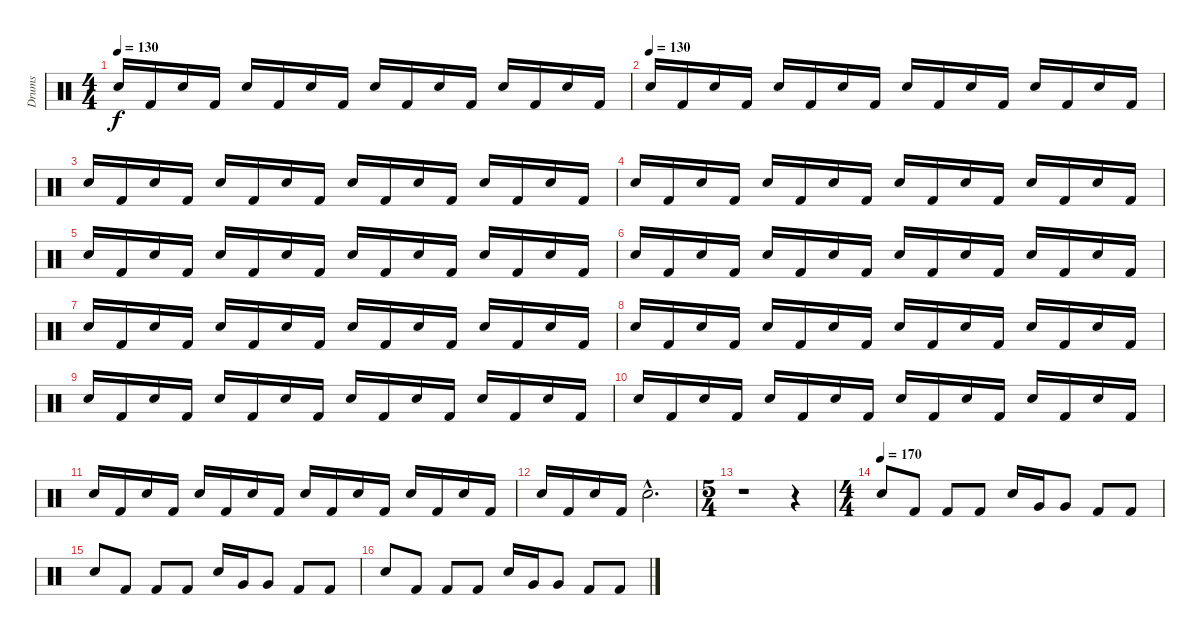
\track ("Drums" "Drums") {instrument percussion}
\staff {score}
\articulation defaults
\ts (4 4)
\tempo 130
\clef neutral
\ks c "Snare (hit) 2".16{dy f} "Kick (hit) 2".16 "Snare (hit) 2".16 "Kick (hit) 2".16 "Snare (hit) 2".16 "Kick (hit) 2".16 "Snare (hit) 2".16 "Kick (hit) 2".16 "Snare (hit) 2".16 "Kick (hit) 2".16 "Snare (hit) 2".16 "Kick (hit) 2".16 "Snare (hit) 2".16 "Kick (hit) 2".16 "Snare (hit) 2".16 "Kick (hit) 2".16
|
\tempo (130)
"Snare (hit) 2".16 "Kick (hit) 2".16 "Snare (hit) 2".16 "Kick (hit) 2".16 "Snare (hit) 2".16 "Kick (hit) 2".16 "Snare (hit) 2".16 "Kick (hit) 2".16 "Snare (hit) 2".16 "Kick (hit) 2".16 "Snare (hit) 2".16 "Kick (hit) 2".16 "Snare (hit) 2".16 "Kick (hit) 2".16 "Snare (hit) 2".16 "Kick (hit) 2".16 |
"Snare (hit) 2".16 "Kick (hit) 2".16 "Snare (hit) 2".16 "Kick (hit) 2".16 "Snare (hit) 2".16 "Kick (hit) 2".16 "Snare (hit) 2".16 "Kick (hit) 2".16 "Snare (hit) 2".16 "Kick (hit) 2".16 "Snare (hit) 2".16 "Kick (hit) 2".16 "Snare (hit) 2".16 "Kick (hit) 2".16 "Snare (hit) 2".16 "Kick (hit) 2".16 |
"Snare (hit) 2".16 "Kick (hit) 2".16 "Snare (hit) 2".16 "Kick (hit) 2".16 "Snare (hit) 2".16 "Kick (hit) 2".16 "Snare (hit) 2".16 "Kick (hit) 2".16 "Snare (hit) 2".16 "Kick (hit) 2".16 "Snare (hit) 2".16 "Kick (hit) 2".16 "Snare (hit) 2".16 "Kick (hit) 2".16 "Snare (hit) 2".16 "Kick (hit) 2".16 |
"Snare (hit) 2".16 "Kick (hit) 2".16 "Snare (hit) 2".16 "Kick (hit) 2".16 "Snare (hit) 2".16 "Kick (hit) 2".16 "Snare (hit) 2".16 "Kick (hit) 2".16 "Snare (hit) 2".16 "Kick (hit) 2".16 "Snare (hit) 2".16 "Kick (hit) 2".16 "Snare (hit) 2".16 "Kick (hit) 2".16 "Snare (hit) 2".16 "Kick (hit) 2".16 |
"Snare (hit) 2".16 "Kick (hit) 2".16 "Snare (hit) 2".16 "Kick (hit) 2".16 "Snare (hit) 2".16 "Kick (hit) 2".16 "Snare (hit) 2".16 "Kick (hit) 2".16 "Snare (hit) 2".16 "Kick (hit) 2".16 "Snare (hit) 2".16 "Kick (hit) 2".16 "Snare (hit) 2".16 "Kick (hit) 2".16 "Snare (hit) 2".16 "Kick (hit) 2".16 |
"Snare (hit) 2".16 "Kick (hit) 2".16 "Snare (hit) 2".16 "Kick (hit) 2".16 "Snare (hit) 2".16 "Kick (hit) 2".16 "Snare (hit) 2".16 "Kick (hit) 2".16 "Snare (hit) 2".16 "Kick (hit) 2".16 "Snare (hit) 2".16 "Kick (hit) 2".16 "Snare (hit) 2".16 "Kick (hit) 2".16 "Snare (hit) 2".16 "Kick (hit) 2".16 |
"Snare (hit) 2".16 "Kick (hit) 2".16 "Snare (hit) 2".16 "Kick (hit) 2".16 "Snare (hit) 2".16 "Kick (hit) 2".16 "Snare (hit) 2".16 "Kick (hit) 2".16 "Snare (hit) 2".16 "Kick (hit) 2".16 "Snare (hit) 2".16 "Kick (hit) 2".16 "Snare (hit) 2".16 "Kick (hit) 2".16 "Snare (hit) 2".16 "Kick (hit) 2".16 |
"Snare (hit) 2".16 "Kick (hit) 2".16 "Snare (hit) 2".16 "Kick (hit) 2".16 "Snare (hit) 2".16 "Kick (hit) 2".16 "Snare (hit) 2".16 "Kick (hit) 2".16 "Snare (hit) 2".16 "Kick (hit) 2".16 "Snare (hit) 2".16 "Kick (hit) 2".16 "Snare (hit) 2".16 "Kick (hit) 2".16 "Snare (hit) 2".16 "Kick (hit) 2".16 |
"Snare (hit) 2".16 "Kick (hit) 2".16 "Snare (hit) 2".16 "Kick (hit) 2".16 "Snare (hit) 2".16 "Kick (hit) 2".16 "Snare (hit) 2".16 "Kick (hit) 2".16 "Snare (hit) 2".16 "Kick (hit) 2".16 "Snare (hit) 2".16 "Kick (hit) 2".16 "Snare (hit) 2".16 "Kick (hit) 2".16 "Snare (hit) 2".16 "Kick (hit) 2".16 |
"Snare (hit) 2".16 "Kick (hit) 2".16 "Snare (hit) 2".16 "Kick (hit) 2".16 "Snare (hit) 2".16 "Kick (hit) 2".16 "Snare (hit) 2".16 "Kick (hit) 2".16 "Snare (hit) 2".16 "Kick (hit) 2".16 "Snare (hit) 2".16 "Kick (hit) 2".16 "Snare (hit) 2".16 "Kick (hit) 2".16 "Snare (hit) 2".16 "Kick (hit) 2".16 |
"Snare (hit) 2".16 "Kick (hit) 2".16 "Snare (hit) 2".16 "Kick (hit) 2".16 "Snare (hit) 2"{hac}.2{d} |
\ts (5 4)
r.1 r.4 |
\ts (4 4)
\tempo (170)
"Snare (hit) 2".8 "Kick (hit) 2".8 "Kick (hit) 2".8 "Kick (hit) 2".8 "Snare (hit) 2".16 "Very Low Tom (hit)".16 "Very Low Tom (hit)".8 "Kick (hit) 2".8 "Kick (hit) 2".8 |
"Snare (hit) 2".8 "Kick (hit) 2".8 "Kick (hit) 2".8 "Kick (hit) 2".8 "Snare (hit) 2".16 "Very Low Tom (hit)".16 "Very Low Tom (hit)".8 "Kick (hit) 2".8 "Kick (hit) 2".8 |
"Snare (hit) 2".8 "Kick (hit) 2".8 "Kick (hit) 2".8 "Kick (hit) 2".8 "Snare (hit) 2".16 "Very Low Tom (hit)".16 "Very Low Tom (hit)".8 "Kick (hit) 2".8 "Kick (hit) 2".8
